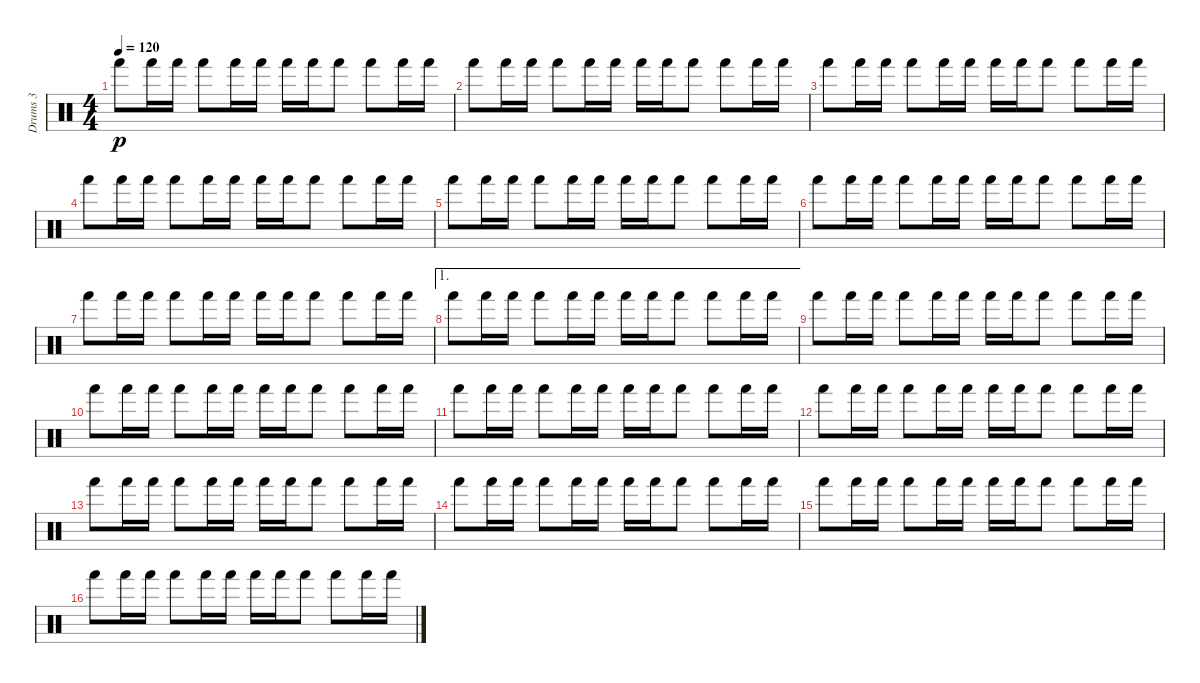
\track ("Drums 3" "Drums 3") {instrument percussion}
\staff {score}
\articulation defaults
\ts (4 4)
\tempo 120
\clef neutral
\ks c "Hand (hit)".8{dy p} "Hand (hit)".16 "Hand (hit)".16 "Hand (hit)".8 "Hand (hit)".16 "Hand (hit)".16 "Hand (hit)".16 "Hand (hit)".16 "Hand (hit)".8 "Hand (hit)".8 "Hand (hit)".16 "Hand (hit)".16
|
"Hand (hit)".8 "Hand (hit)".16 "Hand (hit)".16 "Hand (hit)".8 "Hand (hit)".16 "Hand (hit)".16 "Hand (hit)".16 "Hand (hit)".16 "Hand (hit)".8 "Hand (hit)".8 "Hand (hit)".16 "Hand (hit)".16 |
"Hand (hit)".8 "Hand (hit)".16 "Hand (hit)".16 "Hand (hit)".8 "Hand (hit)".16 "Hand (hit)".16 "Hand (hit)".16 "Hand (hit)".16 "Hand (hit)".8 "Hand (hit)".8 "Hand (hit)".16 "Hand (hit)".16 |
"Hand (hit)".8 "Hand (hit)".16 "Hand (hit)".16 "Hand (hit)".8 "Hand (hit)".16 "Hand (hit)".16 "Hand (hit)".16 "Hand (hit)".16 "Hand (hit)".8 "Hand (hit)".8 "Hand (hit)".16 "Hand (hit)".16 |
"Hand (hit)".8 "Hand (hit)".16 "Hand (hit)".16 "Hand (hit)".8 "Hand (hit)".16 "Hand (hit)".16 "Hand (hit)".16 "Hand (hit)".16 "Hand (hit)".8 "Hand (hit)".8 "Hand (hit)".16 "Hand (hit)".16 |
"Hand (hit)".8 "Hand (hit)".16 "Hand (hit)".16 "Hand (hit)".8 "Hand (hit)".16 "Hand (hit)".16 "Hand (hit)".16 "Hand (hit)".16 "Hand (hit)".8 "Hand (hit)".8 "Hand (hit)".16 "Hand (hit)".16 |
"Hand (hit)".8 "Hand (hit)".16 "Hand (hit)".16 "Hand (hit)".8 "Hand (hit)".16 "Hand (hit)".16 "Hand (hit)".16 "Hand (hit)".16 "Hand (hit)".8 "Hand (hit)".8 "Hand (hit)".16 "Hand (hit)".16 |
\ae 1 "Hand (hit)".8 "Hand (hit)".16 "Hand (hit)".16 "Hand (hit)".8 "Hand (hit)".16 "Hand (hit)".16 "Hand (hit)".16 "Hand (hit)".16 "Hand (hit)".8 "Hand (hit)".8 "Hand (hit)".16 "Hand (hit)".16
|
"Hand (hit)".8 "Hand (hit)".16 "Hand (hit)".16 "Hand (hit)".8 "Hand (hit)".16 "Hand (hit)".16 "Hand (hit)".16 "Hand (hit)".16 "Hand (hit)".8 "Hand (hit)".8 "Hand (hit)".16 "Hand (hit)".16 |
"Hand (hit)".8 "Hand (hit)".16 "Hand (hit)".16 "Hand (hit)".8 "Hand (hit)".16 "Hand (hit)".16 "Hand (hit)".16 "Hand (hit)".16 "Hand (hit)".8 "Hand (hit)".8 "Hand (hit)".16 "Hand (hit)".16 |
"Hand (hit)".8 "Hand (hit)".16 "Hand (hit)".16 "Hand (hit)".8 "Hand (hit)".16 "Hand (hit)".16 "Hand (hit)".16 "Hand (hit)".16 "Hand (hit)".8 "Hand (hit)".8 "Hand (hit)".16 "Hand (hit)".16 |
"Hand (hit)".8 "Hand (hit)".16 "Hand (hit)".16 "Hand (hit)".8 "Hand (hit)".16 "Hand (hit)".16 "Hand (hit)".16 "Hand (hit)".16 "Hand (hit)".8 "Hand (hit)".8 "Hand (hit)".16 "Hand (hit)".16 |
"Hand (hit)".8 "Hand (hit)".16 "Hand (hit)".16 "Hand (hit)".8 "Hand (hit)".16 "Hand (hit)".16 "Hand (hit)".16 "Hand (hit)".16 "Hand (hit)".8 "Hand (hit)".8 "Hand (hit)".16 "Hand (hit)".16 |
"Hand (hit)".8 "Hand (hit)".16 "Hand (hit)".16 "Hand (hit)".8 "Hand (hit)".16 "Hand (hit)".16 "Hand (hit)".16 "Hand (hit)".16 "Hand (hit)".8 "Hand (hit)".8 "Hand (hit)".16 "Hand (hit)".16 |
"Hand (hit)".8 "Hand (hit)".16 "Hand (hit)".16 "Hand (hit)".8 "Hand (hit)".16 "Hand (hit)".16 "Hand (hit)".16 "Hand (hit)".16 "Hand (hit)".8 "Hand (hit)".8 "Hand (hit)".16 "Hand (hit)".16 |
"Hand (hit)".8 "Hand (hit)".16 "Hand (hit)".16 "Hand (hit)".8 "Hand (hit)".16 "Hand (hit)".16 "Hand (hit)".16 "Hand (hit)".16 "Hand (hit)".8 "Hand (hit)".8 "Hand (hit)".16 "Hand (hit)".16
